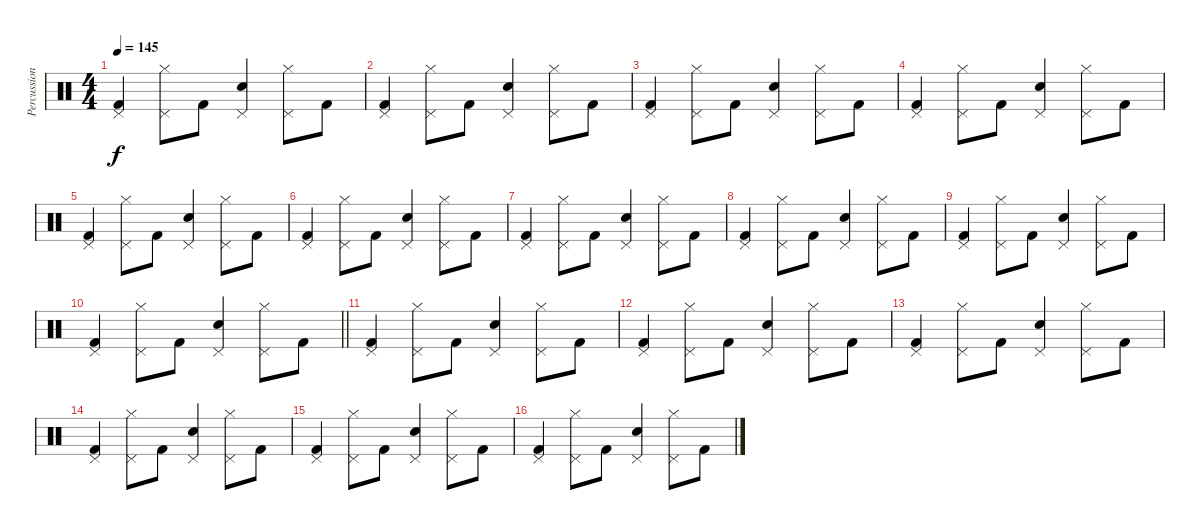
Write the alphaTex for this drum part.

\track ("Percussion" "Percussion") {instrument percussion}
\staff {score}
\articulation defaults
\ts (4 4)
\tempo 145
\clef neutral
\ks c
("Kick (hit) 2" "Pedal Hi-Hat (hit)").4{dy f} ("Hi-Hat (closed)" "Pedal Hi-Hat (hit)").8 "Kick (hit) 2".8 ("Snare (hit) 2" "Pedal Hi-Hat (hit)").4 ("Hi-Hat (closed)" "Pedal Hi-Hat (hit)").8 "Kick (hit) 2".8 |
("Kick (hit) 2" "Pedal Hi-Hat (hit)").4 ("Hi-Hat (closed)" "Pedal Hi-Hat (hit)").8 "Kick (hit) 2".8 ("Snare (hit) 2" "Pedal Hi-Hat (hit)").4 ("Hi-Hat (closed)" "Pedal Hi-Hat (hit)").8 "Kick (hit) 2".8 |
("Kick (hit) 2" "Pedal Hi-Hat (hit)").4 ("Hi-Hat (closed)" "Pedal Hi-Hat (hit)").8 "Kick (hit) 2".8 ("Snare (hit) 2" "Pedal Hi-Hat (hit)").4 ("Hi-Hat (closed)" "Pedal Hi-Hat (hit)").8 "Kick (hit) 2".8 |
("Kick (hit) 2" "Pedal Hi-Hat (hit)").4 ("Hi-Hat (closed)" "Pedal Hi-Hat (hit)").8 "Kick (hit) 2".8 ("Snare (hit) 2" "Pedal Hi-Hat (hit)").4 ("Hi-Hat (closed)" "Pedal Hi-Hat (hit)").8 "Kick (hit) 2".8 |
("Kick (hit) 2" "Pedal Hi-Hat (hit)").4 ("Hi-Hat (closed)" "Pedal Hi-Hat (hit)").8 "Kick (hit) 2".8 ("Snare (hit) 2" "Pedal Hi-Hat (hit)").4 ("Hi-Hat (closed)" "Pedal Hi-Hat (hit)").8 "Kick (hit) 2".8 |
("Kick (hit) 2" "Pedal Hi-Hat (hit)").4 ("Hi-Hat (closed)" "Pedal Hi-Hat (hit)").8 "Kick (hit) 2".8 ("Snare (hit) 2" "Pedal Hi-Hat (hit)").4 ("Hi-Hat (closed)" "Pedal Hi-Hat (hit)").8 "Kick (hit) 2".8 |
("Kick (hit) 2" "Pedal Hi-Hat (hit)").4 ("Hi-Hat (closed)" "Pedal Hi-Hat (hit)").8 "Kick (hit) 2".8 ("Snare (hit) 2" "Pedal Hi-Hat (hit)").4 ("Hi-Hat (closed)" "Pedal Hi-Hat (hit)").8 "Kick (hit) 2".8 |
("Kick (hit) 2" "Pedal Hi-Hat (hit)").4 ("Hi-Hat (closed)" "Pedal Hi-Hat (hit)").8 "Kick (hit) 2".8 ("Snare (hit) 2" "Pedal Hi-Hat (hit)").4 ("Hi-Hat (closed)" "Pedal Hi-Hat (hit)").8 "Kick (hit) 2".8 |
("Kick (hit) 2" "Pedal Hi-Hat (hit)").4 ("Hi-Hat (closed)" "Pedal Hi-Hat (hit)").8 "Kick (hit) 2".8 ("Snare (hit) 2" "Pedal Hi-Hat (hit)").4 ("Hi-Hat (closed)" "Pedal Hi-Hat (hit)").8 "Kick (hit) 2".8 |
\barLineRight lightlight
("Kick (hit) 2" "Pedal Hi-Hat (hit)").4 ("Hi-Hat (closed)" "Pedal Hi-Hat (hit)").8 "Kick (hit) 2".8 ("Snare (hit) 2" "Pedal Hi-Hat (hit)").4 ("Hi-Hat (closed)" "Pedal Hi-Hat (hit)").8 "Kick (hit) 2".8 |
("Kick (hit) 2" "Pedal Hi-Hat (hit)").4 ("Hi-Hat (closed)" "Pedal Hi-Hat (hit)").8 "Kick (hit) 2".8 ("Snare (hit) 2" "Pedal Hi-Hat (hit)").4 ("Hi-Hat (closed)" "Pedal Hi-Hat (hit)").8 "Kick (hit) 2".8 |
("Kick (hit) 2" "Pedal Hi-Hat (hit)").4 ("Hi-Hat (closed)" "Pedal Hi-Hat (hit)").8 "Kick (hit) 2".8 ("Snare (hit) 2" "Pedal Hi-Hat (hit)").4 ("Hi-Hat (closed)" "Pedal Hi-Hat (hit)").8 "Kick (hit) 2".8 |
("Kick (hit) 2" "Pedal Hi-Hat (hit)").4 ("Hi-Hat (closed)" "Pedal Hi-Hat (hit)").8 "Kick (hit) 2".8 ("Snare (hit) 2" "Pedal Hi-Hat (hit)").4 ("Hi-Hat (closed)" "Pedal Hi-Hat (hit)").8 "Kick (hit) 2".8 |
("Kick (hit) 2" "Pedal Hi-Hat (hit)").4 ("Hi-Hat (closed)" "Pedal Hi-Hat (hit)").8 "Kick (hit) 2".8 ("Snare (hit) 2" "Pedal Hi-Hat (hit)").4 ("Hi-Hat (closed)" "Pedal Hi-Hat (hit)").8 "Kick (hit) 2".8 |
("Kick (hit) 2" "Pedal Hi-Hat (hit)").4 ("Hi-Hat (closed)" "Pedal Hi-Hat (hit)").8 "Kick (hit) 2".8 ("Snare (hit) 2" "Pedal Hi-Hat (hit)").4 ("Hi-Hat (closed)" "Pedal Hi-Hat (hit)").8 "Kick (hit) 2".8 |
("Kick (hit) 2" "Pedal Hi-Hat (hit)").4 ("Hi-Hat (closed)" "Pedal Hi-Hat (hit)").8 "Kick (hit) 2".8 ("Snare (hit) 2" "Pedal Hi-Hat (hit)").4 ("Hi-Hat (closed)" "Pedal Hi-Hat (hit)").8 "Kick (hit) 2".8
